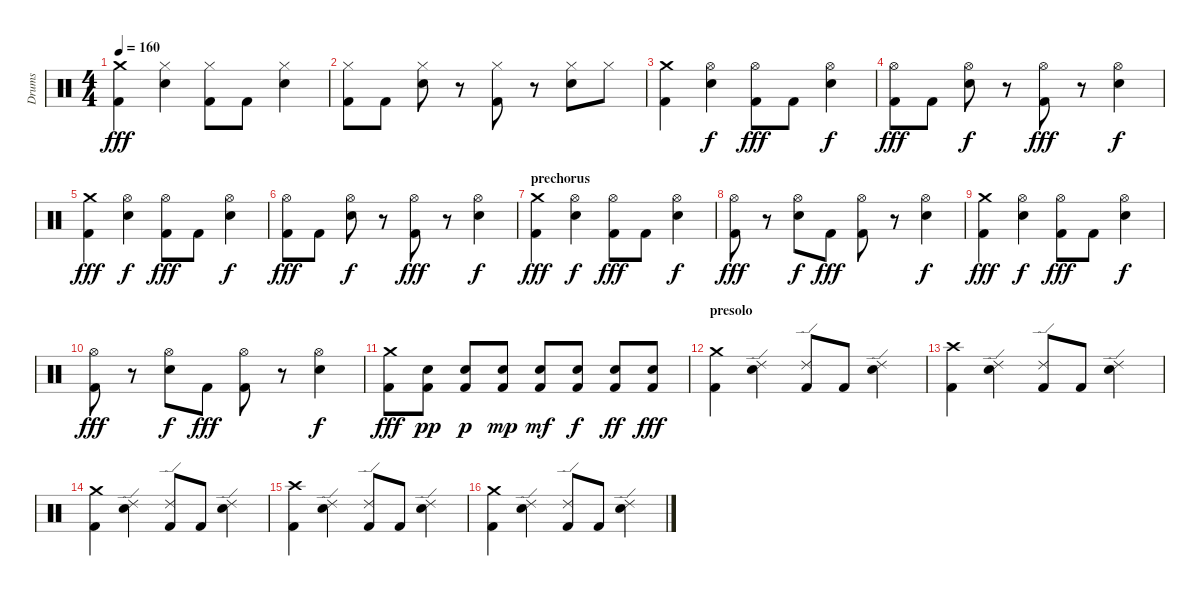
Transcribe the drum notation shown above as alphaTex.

\track ("Drums" "Drums") {instrument percussion}
\staff {score}
\articulation defaults
\ts (4 4)
\tempo 160
\clef neutral
\ks c
("Crash medium (hit)" "Kick (hit) 2").4{dy fff} ("Hi-Hat (closed)" "Electric Snare (hit)").4 ("Hi-Hat (closed)" "Kick (hit) 2").8 "Kick (hit) 2".8 ("Hi-Hat (closed)" "Electric Snare (hit)").4 |
("Hi-Hat (closed)" "Kick (hit) 2").8 "Kick (hit) 2".8 ("Hi-Hat (closed)" "Electric Snare (hit)").8 r.8 ("Hi-Hat (closed)" "Kick (hit) 2").8 r.8 ("Hi-Hat (closed)" "Electric Snare (hit)").8 "Hi-Hat (closed)".8 |
("Crash medium (hit)" "Kick (hit) 2").4 ("Hi-Hat (open)" "Electric Snare (hit)").4{dy f} ("Hi-Hat (open)" "Kick (hit) 2").8{dy fff} "Kick (hit) 2".8 ("Hi-Hat (open)" "Electric Snare (hit)").4{dy f} |
("Hi-Hat (open)" "Kick (hit) 2").8{dy fff} "Kick (hit) 2".8 ("Hi-Hat (open)" "Electric Snare (hit)").8{dy f} r.8 ("Hi-Hat (open)" "Kick (hit) 2").8{dy fff} r.8 ("Hi-Hat (open)" "Electric Snare (hit)").4{dy f} |
("Crash medium (hit)" "Kick (hit) 2").4{dy fff} ("Hi-Hat (open)" "Electric Snare (hit)").4{dy f} ("Hi-Hat (open)" "Kick (hit) 2").8{dy fff} "Kick (hit) 2".8 ("Hi-Hat (open)" "Electric Snare (hit)").4{dy f} |
("Hi-Hat (open)" "Kick (hit) 2").8{dy fff} "Kick (hit) 2".8 ("Hi-Hat (open)" "Electric Snare (hit)").8{dy f} r.8 ("Hi-Hat (open)" "Kick (hit) 2").8{dy fff} r.8 ("Hi-Hat (open)" "Electric Snare (hit)").4{dy f} |
\section ("" "prechorus")
("Crash medium (hit)" "Kick (hit) 2").4{dy fff} ("Hi-Hat (open)" "Electric Snare (hit)").4{dy f} ("Hi-Hat (open)" "Kick (hit) 2").8{dy fff} "Kick (hit) 2".8 ("Hi-Hat (open)" "Electric Snare (hit)").4{dy f} |
("Hi-Hat (open)" "Kick (hit) 2").8{dy fff} r.8 ("Hi-Hat (open)" "Electric Snare (hit)").8{dy f} "Kick (hit) 2".8{dy fff} ("Hi-Hat (open)" "Kick (hit) 2").8 r.8 ("Hi-Hat (open)" "Electric Snare (hit)").4{dy f} |
("Crash medium (hit)" "Kick (hit) 2").4{dy fff} ("Hi-Hat (open)" "Electric Snare (hit)").4{dy f} ("Hi-Hat (open)" "Kick (hit) 2").8{dy fff} "Kick (hit) 2".8 ("Hi-Hat (open)" "Electric Snare (hit)").4{dy f} |
("Hi-Hat (open)" "Kick (hit) 2").8{dy fff} r.8 ("Hi-Hat (open)" "Electric Snare (hit)").8{dy f} "Kick (hit) 2".8{dy fff} ("Hi-Hat (open)" "Kick (hit) 2").8 r.8 ("Hi-Hat (open)" "Electric Snare (hit)").4{dy f} |
("Crash medium (hit)" "Kick (hit) 2").8{dy fff} ("Electric Snare (hit)" "Kick (hit) 2").8{dy pp} ("Electric Snare (hit)" "Kick (hit) 2").8{dy p} ("Electric Snare (hit)" "Kick (hit) 2").8{dy mp} ("Electric Snare (hit)" "Kick (hit) 2").8{dy mf} ("Electric Snare (hit)" "Kick (hit) 2").8{dy f} ("Electric Snare (hit)" "Kick (hit) 2").8{dy ff} ("Electric Snare (hit)" "Kick (hit) 2").8{dy fff} |
\section ("" "presolo")
("Crash medium (hit)" "Kick (hit) 2").4 ("Ride (edge) 2" "Electric Snare (hit)").4 ("Ride (edge) 2" "Kick (hit) 2").8 "Kick (hit) 2".8 ("Ride (edge) 2" "Electric Snare (hit)").4 |
("Crash high (hit)" "Kick (hit) 2").4 ("Ride (edge) 2" "Electric Snare (hit)").4 ("Ride (edge) 2" "Kick (hit) 2").8 "Kick (hit) 2".8 ("Ride (edge) 2" "Electric Snare (hit)").4 |
("Crash medium (hit)" "Kick (hit) 2").4 ("Ride (edge) 2" "Electric Snare (hit)").4 ("Ride (edge) 2" "Kick (hit) 2").8 "Kick (hit) 2".8 ("Ride (edge) 2" "Electric Snare (hit)").4 |
("Crash high (hit)" "Kick (hit) 2").4 ("Ride (edge) 2" "Electric Snare (hit)").4 ("Ride (edge) 2" "Kick (hit) 2").8 "Kick (hit) 2".8 ("Ride (edge) 2" "Electric Snare (hit)").4 |
("Crash medium (hit)" "Kick (hit) 2").4 ("Ride (edge) 2" "Electric Snare (hit)").4 ("Ride (edge) 2" "Kick (hit) 2").8 "Kick (hit) 2".8 ("Ride (edge) 2" "Electric Snare (hit)").4
